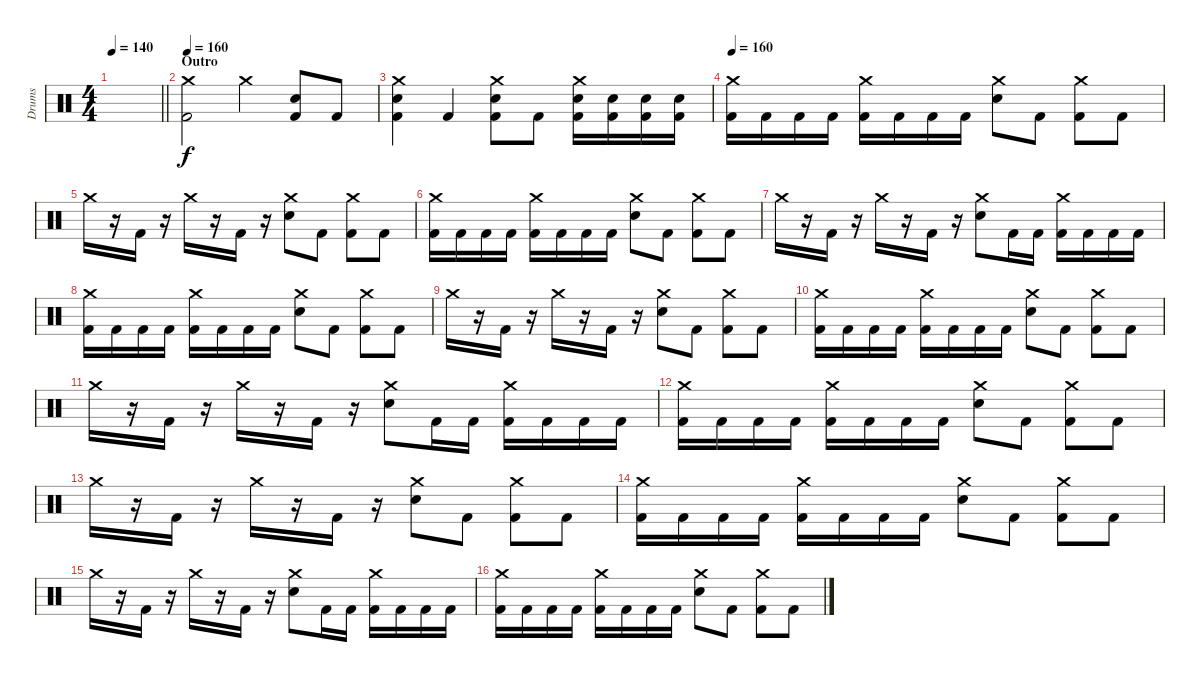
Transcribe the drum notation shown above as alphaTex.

\track ("Drums" "Drums") {instrument percussion}
\staff {score}
\articulation defaults
\ts (4 4)
\tempo 140
\clef neutral
\barLineRight lightlight
\ks c
|
\section ("" "Outro")
\tempo 160
("Crash medium (hit)" "Kick (hit) 2").2 "Crash medium (hit)".4 ("Snare (hit) 2" "Kick (hit) 2").8 "Kick (hit) 2".8 |
("Crash medium (hit)" "Snare (hit) 2" "Kick (hit) 2").4 "Kick (hit) 2".4 ("Crash medium (hit)" "Snare (hit) 2" "Kick (hit) 2").8 "Kick (hit) 2".8 ("Crash medium (hit)" "Snare (hit) 2" "Kick (hit) 2").16 ("Snare (hit) 2" "Kick (hit) 2").16 ("Snare (hit) 2" "Kick (hit) 2").16 ("Snare (hit) 2" "Kick (hit) 2").16 |
\tempo 160
("Crash medium (hit)" "Kick (hit) 2").16 "Kick (hit) 2".16 "Kick (hit) 2".16 "Kick (hit) 2".16 ("Crash medium (hit)" "Kick (hit) 2").16 "Kick (hit) 2".16 "Kick (hit) 2".16 "Kick (hit) 2".16 ("Crash medium (hit)" "Snare (hit) 2").8 "Kick (hit) 2".8 ("Crash medium (hit)" "Kick (hit) 2").8 "Kick (hit) 2".8 |
"Crash medium (hit)".16 r.16 "Kick (hit) 2".16 r.16 "Crash medium (hit)".16 r.16 "Kick (hit) 2".16 r.16 ("Crash medium (hit)" "Snare (hit) 2").8 "Kick (hit) 2".8 ("Crash medium (hit)" "Kick (hit) 2").8 "Kick (hit) 2".8 |
("Crash medium (hit)" "Kick (hit) 2").16 "Kick (hit) 2".16 "Kick (hit) 2".16 "Kick (hit) 2".16 ("Crash medium (hit)" "Kick (hit) 2").16 "Kick (hit) 2".16 "Kick (hit) 2".16 "Kick (hit) 2".16 ("Crash medium (hit)" "Snare (hit) 2").8 "Kick (hit) 2".8 ("Crash medium (hit)" "Kick (hit) 2").8 "Kick (hit) 2".8 |
"Crash medium (hit)".16 r.16 "Kick (hit) 2".16 r.16 "Crash medium (hit)".16 r.16 "Kick (hit) 2".16 r.16 ("Crash medium (hit)" "Snare (hit) 2").8 "Kick (hit) 2".16 "Kick (hit) 2".16 ("Crash medium (hit)" "Kick (hit) 2").16 "Kick (hit) 2".16 "Kick (hit) 2".16 "Kick (hit) 2".16 |
("Crash medium (hit)" "Kick (hit) 2").16 "Kick (hit) 2".16 "Kick (hit) 2".16 "Kick (hit) 2".16 ("Crash medium (hit)" "Kick (hit) 2").16 "Kick (hit) 2".16 "Kick (hit) 2".16 "Kick (hit) 2".16 ("Crash medium (hit)" "Snare (hit) 2").8 "Kick (hit) 2".8 ("Crash medium (hit)" "Kick (hit) 2").8 "Kick (hit) 2".8 |
"Crash medium (hit)".16 r.16 "Kick (hit) 2".16 r.16 "Crash medium (hit)".16 r.16 "Kick (hit) 2".16 r.16 ("Crash medium (hit)" "Snare (hit) 2").8 "Kick (hit) 2".8 ("Crash medium (hit)" "Kick (hit) 2").8 "Kick (hit) 2".8 |
("Crash medium (hit)" "Kick (hit) 2").16 "Kick (hit) 2".16 "Kick (hit) 2".16 "Kick (hit) 2".16 ("Crash medium (hit)" "Kick (hit) 2").16 "Kick (hit) 2".16 "Kick (hit) 2".16 "Kick (hit) 2".16 ("Crash medium (hit)" "Snare (hit) 2").8 "Kick (hit) 2".8 ("Crash medium (hit)" "Kick (hit) 2").8 "Kick (hit) 2".8 |
"Crash medium (hit)".16 r.16 "Kick (hit) 2".16 r.16 "Crash medium (hit)".16 r.16 "Kick (hit) 2".16 r.16 ("Crash medium (hit)" "Snare (hit) 2").8 "Kick (hit) 2".16 "Kick (hit) 2".16 ("Crash medium (hit)" "Kick (hit) 2").16 "Kick (hit) 2".16 "Kick (hit) 2".16 "Kick (hit) 2".16 |
("Crash medium (hit)" "Kick (hit) 2").16 "Kick (hit) 2".16 "Kick (hit) 2".16 "Kick (hit) 2".16 ("Crash medium (hit)" "Kick (hit) 2").16 "Kick (hit) 2".16 "Kick (hit) 2".16 "Kick (hit) 2".16 ("Crash medium (hit)" "Snare (hit) 2").8 "Kick (hit) 2".8 ("Crash medium (hit)" "Kick (hit) 2").8 "Kick (hit) 2".8 |
"Crash medium (hit)".16 r.16 "Kick (hit) 2".16 r.16 "Crash medium (hit)".16 r.16 "Kick (hit) 2".16 r.16 ("Crash medium (hit)" "Snare (hit) 2").8 "Kick (hit) 2".8 ("Crash medium (hit)" "Kick (hit) 2").8 "Kick (hit) 2".8 |
("Crash medium (hit)" "Kick (hit) 2").16 "Kick (hit) 2".16 "Kick (hit) 2".16 "Kick (hit) 2".16 ("Crash medium (hit)" "Kick (hit) 2").16 "Kick (hit) 2".16 "Kick (hit) 2".16 "Kick (hit) 2".16 ("Crash medium (hit)" "Snare (hit) 2").8 "Kick (hit) 2".8 ("Crash medium (hit)" "Kick (hit) 2").8 "Kick (hit) 2".8 |
"Crash medium (hit)".16 r.16 "Kick (hit) 2".16 r.16 "Crash medium (hit)".16 r.16 "Kick (hit) 2".16 r.16 ("Crash medium (hit)" "Snare (hit) 2").8 "Kick (hit) 2".16 "Kick (hit) 2".16 ("Crash medium (hit)" "Kick (hit) 2").16 "Kick (hit) 2".16 "Kick (hit) 2".16 "Kick (hit) 2".16 |
("Crash medium (hit)" "Kick (hit) 2").16 "Kick (hit) 2".16 "Kick (hit) 2".16 "Kick (hit) 2".16 ("Crash medium (hit)" "Kick (hit) 2").16 "Kick (hit) 2".16 "Kick (hit) 2".16 "Kick (hit) 2".16 ("Crash medium (hit)" "Snare (hit) 2").8 "Kick (hit) 2".8 ("Crash medium (hit)" "Kick (hit) 2").8 "Kick (hit) 2".8
